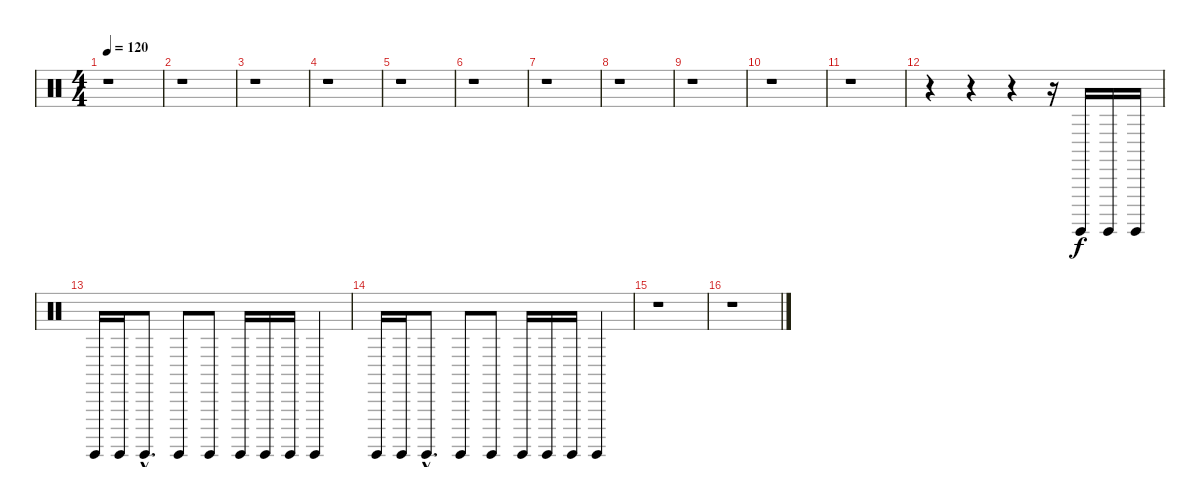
\track "" {instrument percussion}
\staff {score}
\articulation defaults
\ts (4 4)
\tempo 120
\clef neutral
\ks c
r.1{dy f} |
r.1 |
r.1 |
r.1 |
r.1 |
r.1 |
r.1 |
r.1 |
r.1 |
r.1 |
r.1 |
r.4 r.4 r.4 r.16 "Surdo (hit)".16 "Surdo (hit)".16 "Surdo (hit)".16 |
"Surdo (hit)".16 "Surdo (hit)".16 "Surdo (hit)"{hac}.8{d} "Surdo (hit)".8 "Surdo (hit)".8 "Surdo (hit)".16 "Surdo (hit)".16 "Surdo (hit)".16 "Surdo (hit)".4 |
"Surdo (hit)".16 "Surdo (hit)".16 "Surdo (hit)"{hac}.8{d} "Surdo (hit)".8 "Surdo (hit)".8 "Surdo (hit)".16 "Surdo (hit)".16 "Surdo (hit)".16 "Surdo (hit)".4 |
r.1 |
r.1
